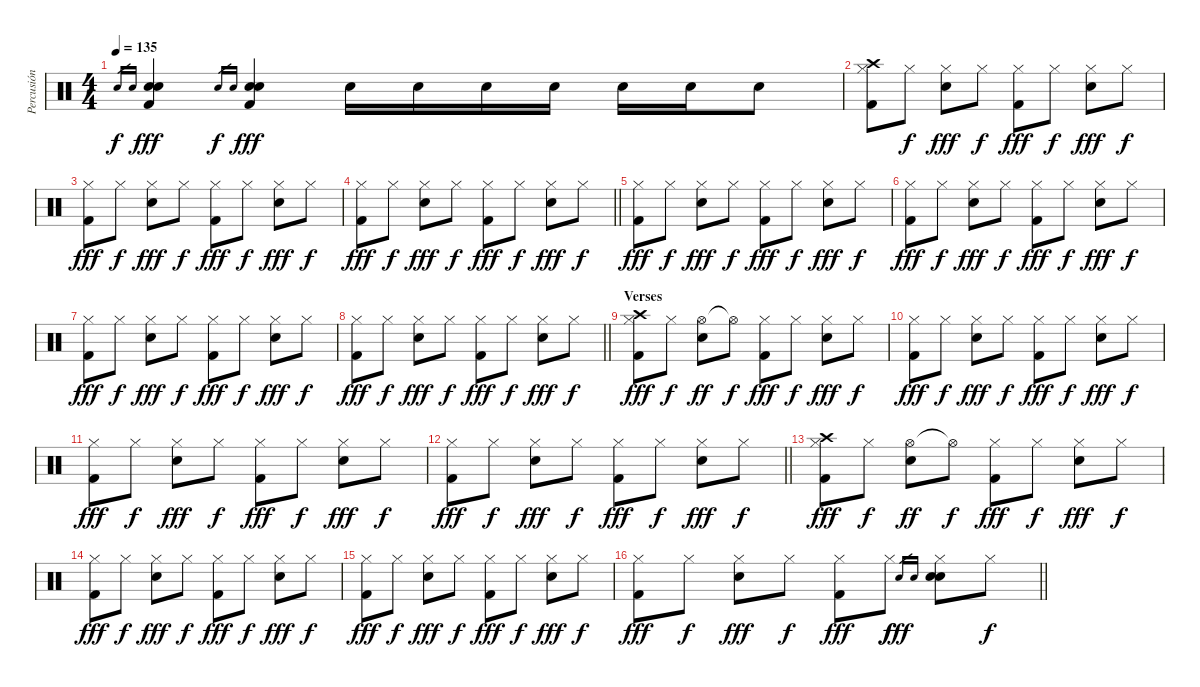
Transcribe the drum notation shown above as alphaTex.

\track ("Percusión" "Percusión") {instrument percussion}
\staff {score}
\articulation defaults
\ts (4 4)
\tempo 135
\clef neutral
\ks c "Electric Snare (hit)".16{gr dy f} "Electric Snare (hit)".16{gr}
("Kick (hit) 2" "Electric Snare (hit)" "Electric Snare (hit)").4{dy fff} "Electric Snare (hit)".16{gr dy f} "Electric Snare (hit)".16{gr} ("Kick (hit) 2" "Electric Snare (hit)" "Electric Snare (hit)").4{dy fff} "Electric Snare (hit)".16 "Electric Snare (hit)".16 "Electric Snare (hit)".16 "Electric Snare (hit)".16 "Electric Snare (hit)".16 "Electric Snare (hit)".16 "Electric Snare (hit)".8 |
("Crash high (hit)" "Hi-Hat (closed)" "Kick (hit) 2").8 "Hi-Hat (closed)".8{dy f} ("Hi-Hat (closed)" "Electric Snare (hit)").8{dy fff} "Hi-Hat (closed)".8{dy f} ("Hi-Hat (closed)" "Kick (hit) 2").8{dy fff} "Hi-Hat (closed)".8{dy f} ("Hi-Hat (closed)" "Electric Snare (hit)").8{dy fff} "Hi-Hat (closed)".8{dy f} |
("Hi-Hat (closed)" "Kick (hit) 2").8{dy fff} "Hi-Hat (closed)".8{dy f} ("Hi-Hat (closed)" "Electric Snare (hit)").8{dy fff} "Hi-Hat (closed)".8{dy f} ("Hi-Hat (closed)" "Kick (hit) 2").8{dy fff} "Hi-Hat (closed)".8{dy f} ("Hi-Hat (closed)" "Electric Snare (hit)").8{dy fff} "Hi-Hat (closed)".8{dy f} |
\barLineRight lightlight
("Hi-Hat (closed)" "Kick (hit) 2").8{dy fff} "Hi-Hat (closed)".8{dy f} ("Hi-Hat (closed)" "Electric Snare (hit)").8{dy fff} "Hi-Hat (closed)".8{dy f} ("Hi-Hat (closed)" "Kick (hit) 2").8{dy fff} "Hi-Hat (closed)".8{dy f} ("Hi-Hat (closed)" "Electric Snare (hit)").8{dy fff} "Hi-Hat (closed)".8{dy f} |
("Hi-Hat (closed)" "Kick (hit) 2").8{dy fff} "Hi-Hat (closed)".8{dy f} ("Hi-Hat (closed)" "Electric Snare (hit)").8{dy fff} "Hi-Hat (closed)".8{dy f} ("Hi-Hat (closed)" "Kick (hit) 2").8{dy fff} "Hi-Hat (closed)".8{dy f} ("Hi-Hat (closed)" "Electric Snare (hit)").8{dy fff} "Hi-Hat (closed)".8{dy f} |
("Hi-Hat (closed)" "Kick (hit) 2").8{dy fff} "Hi-Hat (closed)".8{dy f} ("Hi-Hat (closed)" "Electric Snare (hit)").8{dy fff} "Hi-Hat (closed)".8{dy f} ("Hi-Hat (closed)" "Kick (hit) 2").8{dy fff} "Hi-Hat (closed)".8{dy f} ("Hi-Hat (closed)" "Electric Snare (hit)").8{dy fff} "Hi-Hat (closed)".8{dy f} |
("Hi-Hat (closed)" "Kick (hit) 2").8{dy fff} "Hi-Hat (closed)".8{dy f} ("Hi-Hat (closed)" "Electric Snare (hit)").8{dy fff} "Hi-Hat (closed)".8{dy f} ("Hi-Hat (closed)" "Kick (hit) 2").8{dy fff} "Hi-Hat (closed)".8{dy f} ("Hi-Hat (closed)" "Electric Snare (hit)").8{dy fff} "Hi-Hat (closed)".8{dy f} |
\barLineRight lightlight
("Hi-Hat (closed)" "Kick (hit) 2").8{dy fff} "Hi-Hat (closed)".8{dy f} ("Hi-Hat (closed)" "Electric Snare (hit)").8{dy fff} "Hi-Hat (closed)".8{dy f} ("Hi-Hat (closed)" "Kick (hit) 2").8{dy fff} "Hi-Hat (closed)".8{dy f} ("Hi-Hat (closed)" "Electric Snare (hit)").8{dy fff} "Hi-Hat (closed)".8{dy f} |
\section ("" "Verses")
("Crash high (hit)" "Hi-Hat (closed)" "Kick (hit) 2").8{dy fff} "Hi-Hat (closed)".8{dy f} ("Hi-Hat (open)" "Electric Snare (hit)").8{dy ff} "Hi-Hat (open)"{t}.8{dy f} ("Hi-Hat (closed)" "Kick (hit) 2").8{dy fff} "Hi-Hat (closed)".8{dy f} ("Hi-Hat (closed)" "Electric Snare (hit)").8{dy fff} "Hi-Hat (closed)".8{dy f} |
("Hi-Hat (closed)" "Kick (hit) 2").8{dy fff} "Hi-Hat (closed)".8{dy f} ("Hi-Hat (closed)" "Electric Snare (hit)").8{dy fff} "Hi-Hat (closed)".8{dy f} ("Hi-Hat (closed)" "Kick (hit) 2").8{dy fff} "Hi-Hat (closed)".8{dy f} ("Hi-Hat (closed)" "Electric Snare (hit)").8{dy fff} "Hi-Hat (closed)".8{dy f} |
("Hi-Hat (closed)" "Kick (hit) 2").8{dy fff} "Hi-Hat (closed)".8{dy f} ("Hi-Hat (closed)" "Electric Snare (hit)").8{dy fff} "Hi-Hat (closed)".8{dy f} ("Hi-Hat (closed)" "Kick (hit) 2").8{dy fff} "Hi-Hat (closed)".8{dy f} ("Hi-Hat (closed)" "Electric Snare (hit)").8{dy fff} "Hi-Hat (closed)".8{dy f} |
\barLineRight lightlight
("Hi-Hat (closed)" "Kick (hit) 2").8{dy fff} "Hi-Hat (closed)".8{dy f} ("Hi-Hat (closed)" "Electric Snare (hit)").8{dy fff} "Hi-Hat (closed)".8{dy f} ("Hi-Hat (closed)" "Kick (hit) 2").8{dy fff} "Hi-Hat (closed)".8{dy f} ("Hi-Hat (closed)" "Electric Snare (hit)").8{dy fff} "Hi-Hat (closed)".8{dy f} |
("Crash high (hit)" "Hi-Hat (closed)" "Kick (hit) 2").8{dy fff} "Hi-Hat (closed)".8{dy f} ("Hi-Hat (open)" "Electric Snare (hit)").8{dy ff} "Hi-Hat (open)"{t}.8{dy f} ("Hi-Hat (closed)" "Kick (hit) 2").8{dy fff} "Hi-Hat (closed)".8{dy f} ("Hi-Hat (closed)" "Electric Snare (hit)").8{dy fff} "Hi-Hat (closed)".8{dy f} |
("Hi-Hat (closed)" "Kick (hit) 2").8{dy fff} "Hi-Hat (closed)".8{dy f} ("Hi-Hat (closed)" "Electric Snare (hit)").8{dy fff} "Hi-Hat (closed)".8{dy f} ("Hi-Hat (closed)" "Kick (hit) 2").8{dy fff} "Hi-Hat (closed)".8{dy f} ("Hi-Hat (closed)" "Electric Snare (hit)").8{dy fff} "Hi-Hat (closed)".8{dy f} |
("Hi-Hat (closed)" "Kick (hit) 2").8{dy fff} "Hi-Hat (closed)".8{dy f} ("Hi-Hat (closed)" "Electric Snare (hit)").8{dy fff} "Hi-Hat (closed)".8{dy f} ("Hi-Hat (closed)" "Kick (hit) 2").8{dy fff} "Hi-Hat (closed)".8{dy f} ("Hi-Hat (closed)" "Electric Snare (hit)").8{dy fff} "Hi-Hat (closed)".8{dy f} |
\barLineRight lightlight
("Hi-Hat (closed)" "Kick (hit) 2").8{dy fff} "Hi-Hat (closed)".8{dy f} ("Hi-Hat (closed)" "Electric Snare (hit)").8{dy fff} "Hi-Hat (closed)".8{dy f} ("Hi-Hat (closed)" "Kick (hit) 2").8{dy fff} "Hi-Hat (closed)".8{dy f} "Electric Snare (hit)".16{gr dy fff} "Electric Snare (hit)".16{gr} ("Hi-Hat (closed)" "Electric Snare (hit)" "Electric Snare (hit)").8 "Hi-Hat (closed)".8{dy f}
